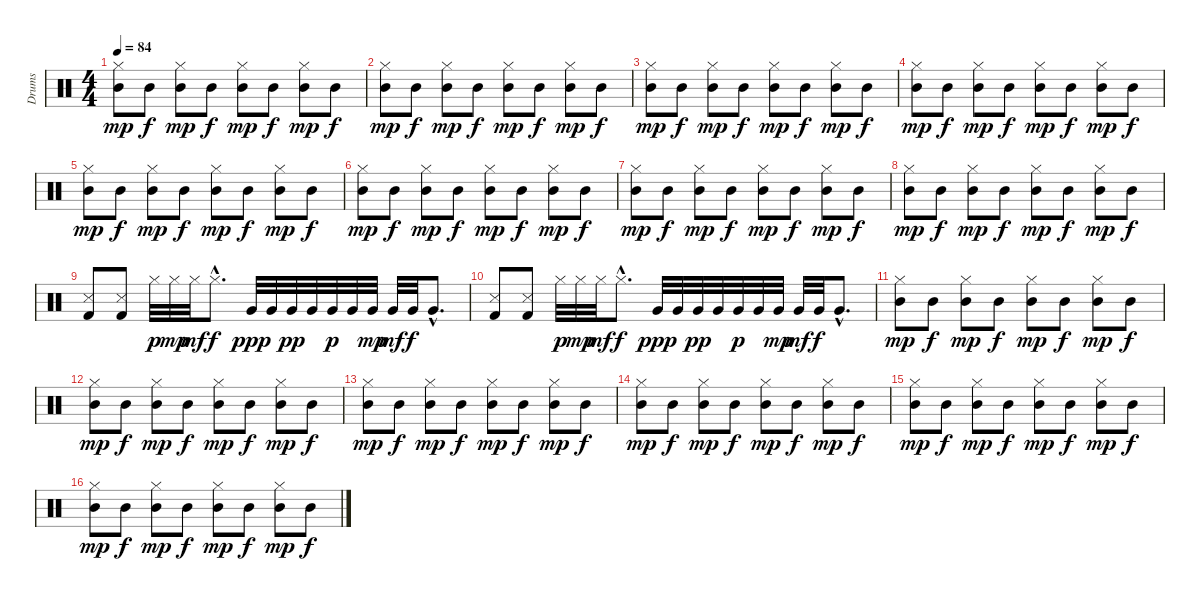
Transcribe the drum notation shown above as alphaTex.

\track ("Drums" "Drums") {instrument percussion}
\staff {score}
\articulation defaults
\ts (4 4)
\tempo 84
\clef neutral
\ks c
("Mid Tom (hit)" "Hi-Hat (closed)").8{dy mp} "Mid Tom (hit)".8{dy f} ("Mid Tom (hit)" "Hi-Hat (closed)").8{dy mp} "Mid Tom (hit)".8{dy f} ("Mid Tom (hit)" "Hi-Hat (closed)").8{dy mp} "Mid Tom (hit)".8{dy f} ("Mid Tom (hit)" "Hi-Hat (closed)").8{dy mp} "Mid Tom (hit)".8{dy f} |
("Mid Tom (hit)" "Hi-Hat (closed)").8{dy mp} "Mid Tom (hit)".8{dy f} ("Mid Tom (hit)" "Hi-Hat (closed)").8{dy mp} "Mid Tom (hit)".8{dy f} ("Mid Tom (hit)" "Hi-Hat (closed)").8{dy mp} "Mid Tom (hit)".8{dy f} ("Mid Tom (hit)" "Hi-Hat (closed)").8{dy mp} "Mid Tom (hit)".8{dy f} |
("Mid Tom (hit)" "Hi-Hat (closed)").8{dy mp} "Mid Tom (hit)".8{dy f} ("Mid Tom (hit)" "Hi-Hat (closed)").8{dy mp} "Mid Tom (hit)".8{dy f} ("Mid Tom (hit)" "Hi-Hat (closed)").8{dy mp} "Mid Tom (hit)".8{dy f} ("Mid Tom (hit)" "Hi-Hat (closed)").8{dy mp} "Mid Tom (hit)".8{dy f} |
("Mid Tom (hit)" "Hi-Hat (closed)").8{dy mp} "Mid Tom (hit)".8{dy f} ("Mid Tom (hit)" "Hi-Hat (closed)").8{dy mp} "Mid Tom (hit)".8{dy f} ("Mid Tom (hit)" "Hi-Hat (closed)").8{dy mp} "Mid Tom (hit)".8{dy f} ("Mid Tom (hit)" "Hi-Hat (closed)").8{dy mp} "Mid Tom (hit)".8{dy f} |
("Mid Tom (hit)" "Hi-Hat (closed)").8{dy mp} "Mid Tom (hit)".8{dy f} ("Mid Tom (hit)" "Hi-Hat (closed)").8{dy mp} "Mid Tom (hit)".8{dy f} ("Mid Tom (hit)" "Hi-Hat (closed)").8{dy mp} "Mid Tom (hit)".8{dy f} ("Mid Tom (hit)" "Hi-Hat (closed)").8{dy mp} "Mid Tom (hit)".8{dy f} |
("Mid Tom (hit)" "Hi-Hat (closed)").8{dy mp} "Mid Tom (hit)".8{dy f} ("Mid Tom (hit)" "Hi-Hat (closed)").8{dy mp} "Mid Tom (hit)".8{dy f} ("Mid Tom (hit)" "Hi-Hat (closed)").8{dy mp} "Mid Tom (hit)".8{dy f} ("Mid Tom (hit)" "Hi-Hat (closed)").8{dy mp} "Mid Tom (hit)".8{dy f} |
("Mid Tom (hit)" "Hi-Hat (closed)").8{dy mp} "Mid Tom (hit)".8{dy f} ("Mid Tom (hit)" "Hi-Hat (closed)").8{dy mp} "Mid Tom (hit)".8{dy f} ("Mid Tom (hit)" "Hi-Hat (closed)").8{dy mp} "Mid Tom (hit)".8{dy f} ("Mid Tom (hit)" "Hi-Hat (closed)").8{dy mp} "Mid Tom (hit)".8{dy f} |
("Mid Tom (hit)" "Hi-Hat (closed)").8{dy mp} "Mid Tom (hit)".8{dy f} ("Mid Tom (hit)" "Hi-Hat (closed)").8{dy mp} "Mid Tom (hit)".8{dy f} ("Mid Tom (hit)" "Hi-Hat (closed)").8{dy mp} "Mid Tom (hit)".8{dy f} ("Mid Tom (hit)" "Hi-Hat (closed)").8{dy mp} "Mid Tom (hit)".8{dy f} |
("Snare (side stick) 3" "Kick (hit) 2").8 ("Snare (side stick) 3" "Kick (hit) 2").8 "Hi-Hat (closed)".32{dy p} "Hi-Hat (closed)".32{dy mp} "Hi-Hat (closed)".32{dy mf} "Hi-Hat (closed)"{hac}.8{d dy f} "Very Low Tom (hit)".32{dy ppp} "Very Low Tom (hit)".32 "Very Low Tom (hit)".32{dy pp} "Very Low Tom (hit)".32 "Very Low Tom (hit)".32{dy p} "Very Low Tom (hit)".32 "Very Low Tom (hit)".32{dy mp} "Very Low Tom (hit)".32{dy mf} "Very Low Tom (hit)".32{dy f} "Very Low Tom (hit)"{hac}.8{d} |
("Snare (side stick) 3" "Kick (hit) 2").8 ("Snare (side stick) 3" "Kick (hit) 2").8 "Hi-Hat (closed)".32{dy p} "Hi-Hat (closed)".32{dy mp} "Hi-Hat (closed)".32{dy mf} "Hi-Hat (closed)"{hac}.8{d dy f} "Very Low Tom (hit)".32{dy ppp} "Very Low Tom (hit)".32 "Very Low Tom (hit)".32{dy pp} "Very Low Tom (hit)".32 "Very Low Tom (hit)".32{dy p} "Very Low Tom (hit)".32 "Very Low Tom (hit)".32{dy mp} "Very Low Tom (hit)".32{dy mf} "Very Low Tom (hit)".32{dy f} "Very Low Tom (hit)"{hac}.8{d} |
("Mid Tom (hit)" "Hi-Hat (closed)").8{dy mp} "Mid Tom (hit)".8{dy f} ("Mid Tom (hit)" "Hi-Hat (closed)").8{dy mp} "Mid Tom (hit)".8{dy f} ("Mid Tom (hit)" "Hi-Hat (closed)").8{dy mp} "Mid Tom (hit)".8{dy f} ("Mid Tom (hit)" "Hi-Hat (closed)").8{dy mp} "Mid Tom (hit)".8{dy f} |
("Mid Tom (hit)" "Hi-Hat (closed)").8{dy mp} "Mid Tom (hit)".8{dy f} ("Mid Tom (hit)" "Hi-Hat (closed)").8{dy mp} "Mid Tom (hit)".8{dy f} ("Mid Tom (hit)" "Hi-Hat (closed)").8{dy mp} "Mid Tom (hit)".8{dy f} ("Mid Tom (hit)" "Hi-Hat (closed)").8{dy mp} "Mid Tom (hit)".8{dy f} |
("Mid Tom (hit)" "Hi-Hat (closed)").8{dy mp} "Mid Tom (hit)".8{dy f} ("Mid Tom (hit)" "Hi-Hat (closed)").8{dy mp} "Mid Tom (hit)".8{dy f} ("Mid Tom (hit)" "Hi-Hat (closed)").8{dy mp} "Mid Tom (hit)".8{dy f} ("Mid Tom (hit)" "Hi-Hat (closed)").8{dy mp} "Mid Tom (hit)".8{dy f} |
("Mid Tom (hit)" "Hi-Hat (closed)").8{dy mp} "Mid Tom (hit)".8{dy f} ("Mid Tom (hit)" "Hi-Hat (closed)").8{dy mp} "Mid Tom (hit)".8{dy f} ("Mid Tom (hit)" "Hi-Hat (closed)").8{dy mp} "Mid Tom (hit)".8{dy f} ("Mid Tom (hit)" "Hi-Hat (closed)").8{dy mp} "Mid Tom (hit)".8{dy f} |
("Mid Tom (hit)" "Hi-Hat (closed)").8{dy mp} "Mid Tom (hit)".8{dy f} ("Mid Tom (hit)" "Hi-Hat (closed)").8{dy mp} "Mid Tom (hit)".8{dy f} ("Mid Tom (hit)" "Hi-Hat (closed)").8{dy mp} "Mid Tom (hit)".8{dy f} ("Mid Tom (hit)" "Hi-Hat (closed)").8{dy mp} "Mid Tom (hit)".8{dy f} |
("Mid Tom (hit)" "Hi-Hat (closed)").8{dy mp} "Mid Tom (hit)".8{dy f} ("Mid Tom (hit)" "Hi-Hat (closed)").8{dy mp} "Mid Tom (hit)".8{dy f} ("Mid Tom (hit)" "Hi-Hat (closed)").8{dy mp} "Mid Tom (hit)".8{dy f} ("Mid Tom (hit)" "Hi-Hat (closed)").8{dy mp} "Mid Tom (hit)".8{dy f}
